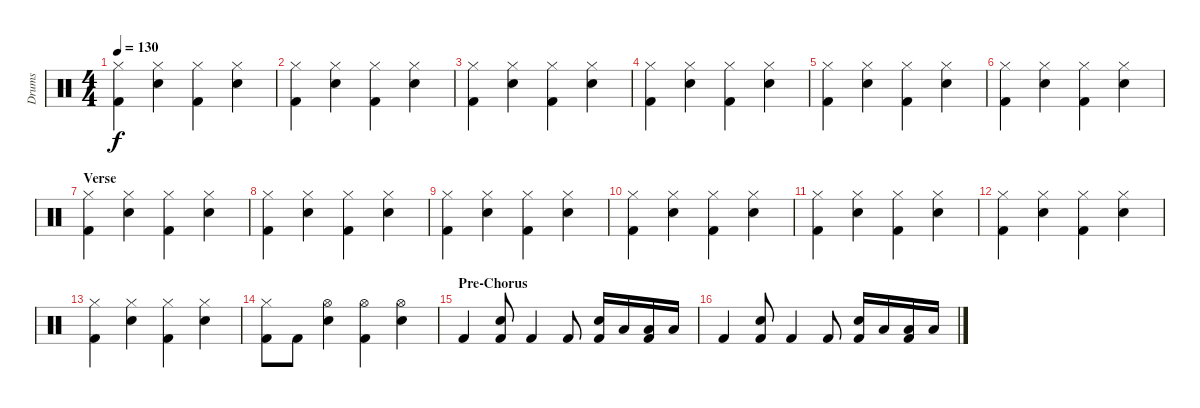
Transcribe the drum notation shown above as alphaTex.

\track ("Drums" "Drums") {instrument percussion}
\staff {score}
\articulation defaults
\ts (4 4)
\tempo 130
\clef neutral
\ks c
("Kick (hit) 2" "Hi-Hat (closed)").4{dy f} ("Hi-Hat (closed)" "Snare (hit) 2").4 ("Kick (hit) 2" "Hi-Hat (closed)").4 ("Hi-Hat (closed)" "Snare (hit) 2").4 |
("Kick (hit) 2" "Hi-Hat (closed)").4 ("Hi-Hat (closed)" "Snare (hit) 2").4 ("Kick (hit) 2" "Hi-Hat (closed)").4 ("Hi-Hat (closed)" "Snare (hit) 2").4 |
("Kick (hit) 2" "Hi-Hat (closed)").4 ("Hi-Hat (closed)" "Snare (hit) 2").4 ("Kick (hit) 2" "Hi-Hat (closed)").4 ("Hi-Hat (closed)" "Snare (hit) 2").4 |
("Kick (hit) 2" "Hi-Hat (closed)").4 ("Hi-Hat (closed)" "Snare (hit) 2").4 ("Kick (hit) 2" "Hi-Hat (closed)").4 ("Hi-Hat (closed)" "Snare (hit) 2").4 |
("Kick (hit) 2" "Hi-Hat (closed)").4 ("Hi-Hat (closed)" "Snare (hit) 2").4 ("Kick (hit) 2" "Hi-Hat (closed)").4 ("Hi-Hat (closed)" "Snare (hit) 2").4 |
("Kick (hit) 2" "Hi-Hat (closed)").4 ("Hi-Hat (closed)" "Snare (hit) 2").4 ("Kick (hit) 2" "Hi-Hat (closed)").4 ("Hi-Hat (closed)" "Snare (hit) 2").4 |
\section ("" "Verse")
("Kick (hit) 2" "Hi-Hat (closed)").4 ("Hi-Hat (closed)" "Snare (hit) 2").4 ("Kick (hit) 2" "Hi-Hat (closed)").4 ("Hi-Hat (closed)" "Snare (hit) 2").4 |
("Kick (hit) 2" "Hi-Hat (closed)").4 ("Hi-Hat (closed)" "Snare (hit) 2").4 ("Kick (hit) 2" "Hi-Hat (closed)").4 ("Hi-Hat (closed)" "Snare (hit) 2").4 |
("Kick (hit) 2" "Hi-Hat (closed)").4 ("Hi-Hat (closed)" "Snare (hit) 2").4 ("Kick (hit) 2" "Hi-Hat (closed)").4 ("Hi-Hat (closed)" "Snare (hit) 2").4 |
("Kick (hit) 2" "Hi-Hat (closed)").4 ("Hi-Hat (closed)" "Snare (hit) 2").4 ("Kick (hit) 2" "Hi-Hat (closed)").4 ("Hi-Hat (closed)" "Snare (hit) 2").4 |
("Kick (hit) 2" "Hi-Hat (closed)").4 ("Hi-Hat (closed)" "Snare (hit) 2").4 ("Kick (hit) 2" "Hi-Hat (closed)").4 ("Hi-Hat (closed)" "Snare (hit) 2").4 |
("Kick (hit) 2" "Hi-Hat (closed)").4 ("Hi-Hat (closed)" "Snare (hit) 2").4 ("Kick (hit) 2" "Hi-Hat (closed)").4 ("Hi-Hat (closed)" "Snare (hit) 2").4 |
("Kick (hit) 2" "Hi-Hat (closed)").4 ("Hi-Hat (closed)" "Snare (hit) 2").4 ("Kick (hit) 2" "Hi-Hat (closed)").4 ("Hi-Hat (closed)" "Snare (hit) 2").4 |
("Kick (hit) 2" "Hi-Hat (closed)").8 "Kick (hit) 2".8 ("Hi-Hat (open)" "Snare (hit) 2").4 ("Kick (hit) 2" "Hi-Hat (open)").4 ("Hi-Hat (open)" "Snare (hit) 2").4 |
\section ("" "Pre-Chorus")
"Kick (hit) 2".4 ("Kick (hit) 2" "Snare (hit) 2").8 "Kick (hit) 2".4 "Kick (hit) 2".8 ("Kick (hit) 2" "Snare (hit) 2").16 "Low Tom (hit)".16 ("Kick (hit) 2" "Low Tom (hit)").16 "Low Tom (hit)".16 |
"Kick (hit) 2".4 ("Kick (hit) 2" "Snare (hit) 2").8 "Kick (hit) 2".4 "Kick (hit) 2".8 ("Kick (hit) 2" "Snare (hit) 2").16 "Low Tom (hit)".16 ("Kick (hit) 2" "Low Tom (hit)").16 "Low Tom (hit)".16
